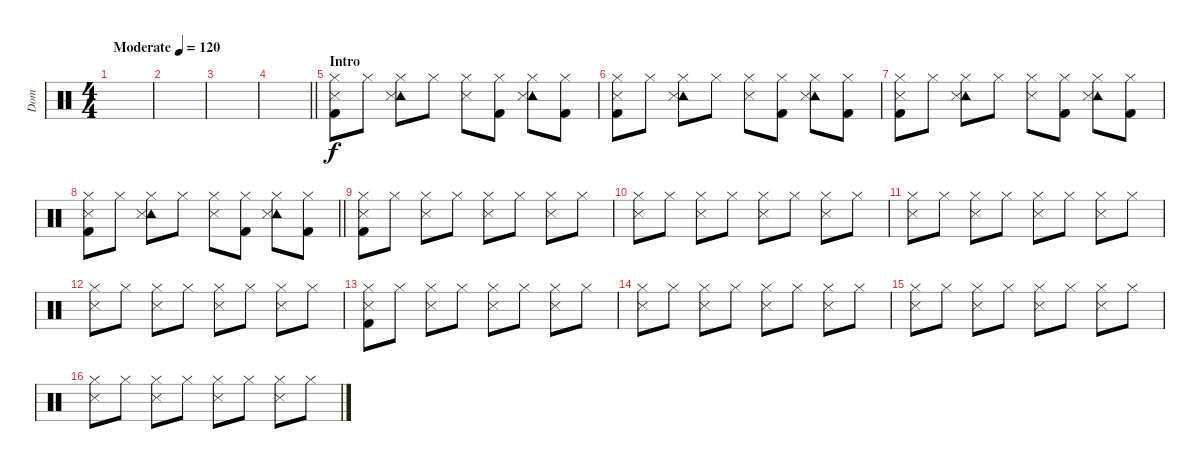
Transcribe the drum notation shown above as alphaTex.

\track ("Dom" "Dom") {instrument percussion}
\staff {score}
\articulation defaults
\ts (4 4)
\tempo (120 "Moderate")
\clef neutral
\ks c
|
|
|
\barLineRight lightlight
|
\section ("" "Intro")
("Hi-Hat (closed)" "Snare (side stick) 3" "Kick (hit) 2").8 "Hi-Hat (closed)".8 ("Tambourine (hit)" "Hi-Hat (closed)" "Snare (side stick) 3").8 "Hi-Hat (closed)".8 ("Hi-Hat (closed)" "Snare (side stick) 3").8 ("Hi-Hat (closed)" "Kick (hit) 2").8 ("Tambourine (hit)" "Hi-Hat (closed)" "Snare (side stick) 3").8 ("Hi-Hat (closed)" "Kick (hit) 2").8 |
("Hi-Hat (closed)" "Snare (side stick) 3" "Kick (hit) 2").8 "Hi-Hat (closed)".8 ("Tambourine (hit)" "Hi-Hat (closed)" "Snare (side stick) 3").8 "Hi-Hat (closed)".8 ("Hi-Hat (closed)" "Snare (side stick) 3").8 ("Hi-Hat (closed)" "Kick (hit) 2").8 ("Tambourine (hit)" "Hi-Hat (closed)" "Snare (side stick) 3").8 ("Hi-Hat (closed)" "Kick (hit) 2").8 |
("Hi-Hat (closed)" "Snare (side stick) 3" "Kick (hit) 2").8 "Hi-Hat (closed)".8 ("Tambourine (hit)" "Hi-Hat (closed)" "Snare (side stick) 3").8 "Hi-Hat (closed)".8 ("Hi-Hat (closed)" "Snare (side stick) 3").8 ("Hi-Hat (closed)" "Kick (hit) 2").8 ("Tambourine (hit)" "Hi-Hat (closed)" "Snare (side stick) 3").8 ("Hi-Hat (closed)" "Kick (hit) 2").8 |
\barLineRight lightlight
("Hi-Hat (closed)" "Snare (side stick) 3" "Kick (hit) 2").8 "Hi-Hat (closed)".8 ("Tambourine (hit)" "Hi-Hat (closed)" "Snare (side stick) 3").8 "Hi-Hat (closed)".8 ("Hi-Hat (closed)" "Snare (side stick) 3").8 ("Hi-Hat (closed)" "Kick (hit) 2").8 ("Tambourine (hit)" "Hi-Hat (closed)" "Snare (side stick) 3").8 ("Hi-Hat (closed)" "Kick (hit) 2").8 |
\section ("" "")
("Hi-Hat (closed)" "Snare (side stick) 3" "Kick (hit) 2").8 "Hi-Hat (closed)".8 ("Hi-Hat (closed)" "Snare (side stick) 3").8 "Hi-Hat (closed)".8 ("Hi-Hat (closed)" "Snare (side stick) 3").8 "Hi-Hat (closed)".8 ("Hi-Hat (closed)" "Snare (side stick) 3").8 "Hi-Hat (closed)".8 |
("Hi-Hat (closed)" "Snare (side stick) 3").8 "Hi-Hat (closed)".8 ("Hi-Hat (closed)" "Snare (side stick) 3").8 "Hi-Hat (closed)".8 ("Hi-Hat (closed)" "Snare (side stick) 3").8 "Hi-Hat (closed)".8 ("Hi-Hat (closed)" "Snare (side stick) 3").8 "Hi-Hat (closed)".8 |
("Hi-Hat (closed)" "Snare (side stick) 3").8 "Hi-Hat (closed)".8 ("Hi-Hat (closed)" "Snare (side stick) 3").8 "Hi-Hat (closed)".8 ("Hi-Hat (closed)" "Snare (side stick) 3").8 "Hi-Hat (closed)".8 ("Hi-Hat (closed)" "Snare (side stick) 3").8 "Hi-Hat (closed)".8 |
("Hi-Hat (closed)" "Snare (side stick) 3").8 "Hi-Hat (closed)".8 ("Hi-Hat (closed)" "Snare (side stick) 3").8 "Hi-Hat (closed)".8 ("Hi-Hat (closed)" "Snare (side stick) 3").8 "Hi-Hat (closed)".8 ("Hi-Hat (closed)" "Snare (side stick) 3").8 "Hi-Hat (closed)".8 |
("Hi-Hat (closed)" "Snare (side stick) 3" "Kick (hit) 2").8 "Hi-Hat (closed)".8 ("Hi-Hat (closed)" "Snare (side stick) 3").8 "Hi-Hat (closed)".8 ("Hi-Hat (closed)" "Snare (side stick) 3").8 "Hi-Hat (closed)".8 ("Hi-Hat (closed)" "Snare (side stick) 3").8 "Hi-Hat (closed)".8 |
("Hi-Hat (closed)" "Snare (side stick) 3").8 "Hi-Hat (closed)".8 ("Hi-Hat (closed)" "Snare (side stick) 3").8 "Hi-Hat (closed)".8 ("Hi-Hat (closed)" "Snare (side stick) 3").8 "Hi-Hat (closed)".8 ("Hi-Hat (closed)" "Snare (side stick) 3").8 "Hi-Hat (closed)".8 |
("Hi-Hat (closed)" "Snare (side stick) 3").8 "Hi-Hat (closed)".8 ("Hi-Hat (closed)" "Snare (side stick) 3").8 "Hi-Hat (closed)".8 ("Hi-Hat (closed)" "Snare (side stick) 3").8 "Hi-Hat (closed)".8 ("Hi-Hat (closed)" "Snare (side stick) 3").8 "Hi-Hat (closed)".8 |
("Hi-Hat (closed)" "Snare (side stick) 3").8 "Hi-Hat (closed)".8 ("Hi-Hat (closed)" "Snare (side stick) 3").8 "Hi-Hat (closed)".8 ("Hi-Hat (closed)" "Snare (side stick) 3").8 "Hi-Hat (closed)".8 ("Hi-Hat (closed)" "Snare (side stick) 3").8 "Hi-Hat (closed)".8
